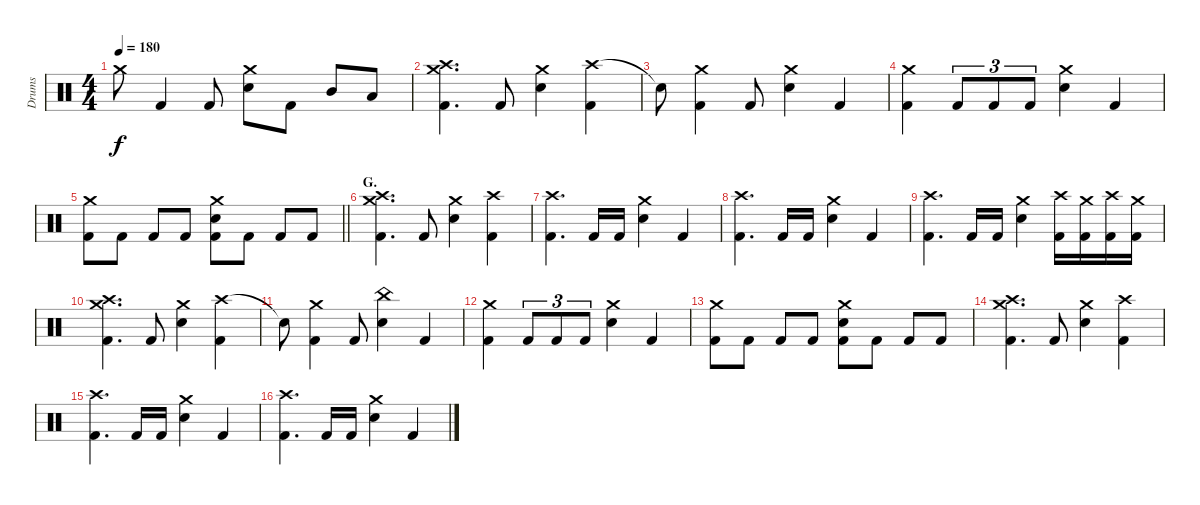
\track ("Drums" "Drums") {instrument percussion}
\staff {score}
\articulation defaults
\ts (4 4)
\tempo 180
\clef neutral
\ks c "Crash medium (hit)".8{dy f} "Kick (hit) 2".4 "Kick (hit) 2".8
("Crash medium (hit)" "Electric Snare (hit)").8 "Kick (hit) 2".8 "Mid Tom (hit)".8 "Low Tom (hit)".8 |
("Crash medium (hit)" "Crash high (hit)" "Kick (hit) 2").4{d} "Kick (hit) 2".8 ("Crash medium (hit)" "Electric Snare (hit)").4 ("Crash high (hit)" "Kick (hit) 2").4 |
"Snare (hit)"{t}.8 ("Crash medium (hit)" "Kick (hit) 2").4 "Kick (hit) 2".8 ("Crash medium (hit)" "Electric Snare (hit)").4 "Kick (hit) 2".4 |
("Crash medium (hit)" "Kick (hit) 2").4 "Kick (hit) 2".8{tu (3 2)} "Kick (hit) 2".8{tu (3 2)} "Kick (hit) 2".8{tu (3 2)} ("Crash medium (hit)" "Electric Snare (hit)").4 "Kick (hit) 2".4 |
\barLineRight lightlight
("Crash medium (hit)" "Kick (hit) 2").8 "Kick (hit) 2".8 "Kick (hit) 2".8 "Kick (hit) 2".8 ("Crash medium (hit)" "Electric Snare (hit)" "Kick (hit) 2").8 "Kick (hit) 2".8 "Kick (hit) 2".8 "Kick (hit) 2".8 |
\section ("" "G.")
("Crash medium (hit)" "Crash high (hit)" "Kick (hit) 2").4{d} "Kick (hit) 2".8 ("Crash medium (hit)" "Electric Snare (hit)").4 ("Crash high (hit)" "Kick (hit) 2").4 |
("Crash high (hit)" "Kick (hit) 2").4{d} "Kick (hit) 2".16 "Kick (hit) 2".16 ("Crash medium (hit)" "Electric Snare (hit)").4 "Kick (hit) 2".4 |
("Crash high (hit)" "Kick (hit) 2").4{d} "Kick (hit) 2".16 "Kick (hit) 2".16 ("Crash medium (hit)" "Electric Snare (hit)").4 "Kick (hit) 2".4 |
("Crash high (hit)" "Kick (hit) 2").4{d} "Kick (hit) 2".16 "Kick (hit) 2".16 ("Crash medium (hit)" "Electric Snare (hit)").4 ("Crash high (hit)" "Kick (hit) 2").16 ("Crash medium (hit)" "Kick (hit) 2").16 ("Crash high (hit)" "Kick (hit) 2").16 ("Crash medium (hit)" "Kick (hit) 2").16 |
("Crash medium (hit)" "Crash high (hit)" "Kick (hit) 2").4{d} "Kick (hit) 2".8 ("Crash medium (hit)" "Electric Snare (hit)").4 ("Crash high (hit)" "Kick (hit) 2").4 |
"Snare (hit)"{t}.8 ("Crash medium (hit)" "Kick (hit) 2").4 "Kick (hit) 2".8 ("China (hit)" "Electric Snare (hit)").4 "Kick (hit) 2".4 |
("Crash medium (hit)" "Kick (hit) 2").4 "Kick (hit) 2".8{tu (3 2)} "Kick (hit) 2".8{tu (3 2)} "Kick (hit) 2".8{tu (3 2)} ("Crash medium (hit)" "Electric Snare (hit)").4 "Kick (hit) 2".4 |
("Crash medium (hit)" "Kick (hit) 2").8 "Kick (hit) 2".8 "Kick (hit) 2".8 "Kick (hit) 2".8 ("Crash medium (hit)" "Electric Snare (hit)" "Kick (hit) 2").8 "Kick (hit) 2".8 "Kick (hit) 2".8 "Kick (hit) 2".8 |
("Crash medium (hit)" "Crash high (hit)" "Kick (hit) 2").4{d} "Kick (hit) 2".8 ("Crash medium (hit)" "Electric Snare (hit)").4 ("Crash high (hit)" "Kick (hit) 2").4 |
("Crash high (hit)" "Kick (hit) 2").4{d} "Kick (hit) 2".16 "Kick (hit) 2".16 ("Crash medium (hit)" "Electric Snare (hit)").4 "Kick (hit) 2".4 |
("Crash high (hit)" "Kick (hit) 2").4{d} "Kick (hit) 2".16 "Kick (hit) 2".16 ("Crash medium (hit)" "Electric Snare (hit)").4 "Kick (hit) 2".4
